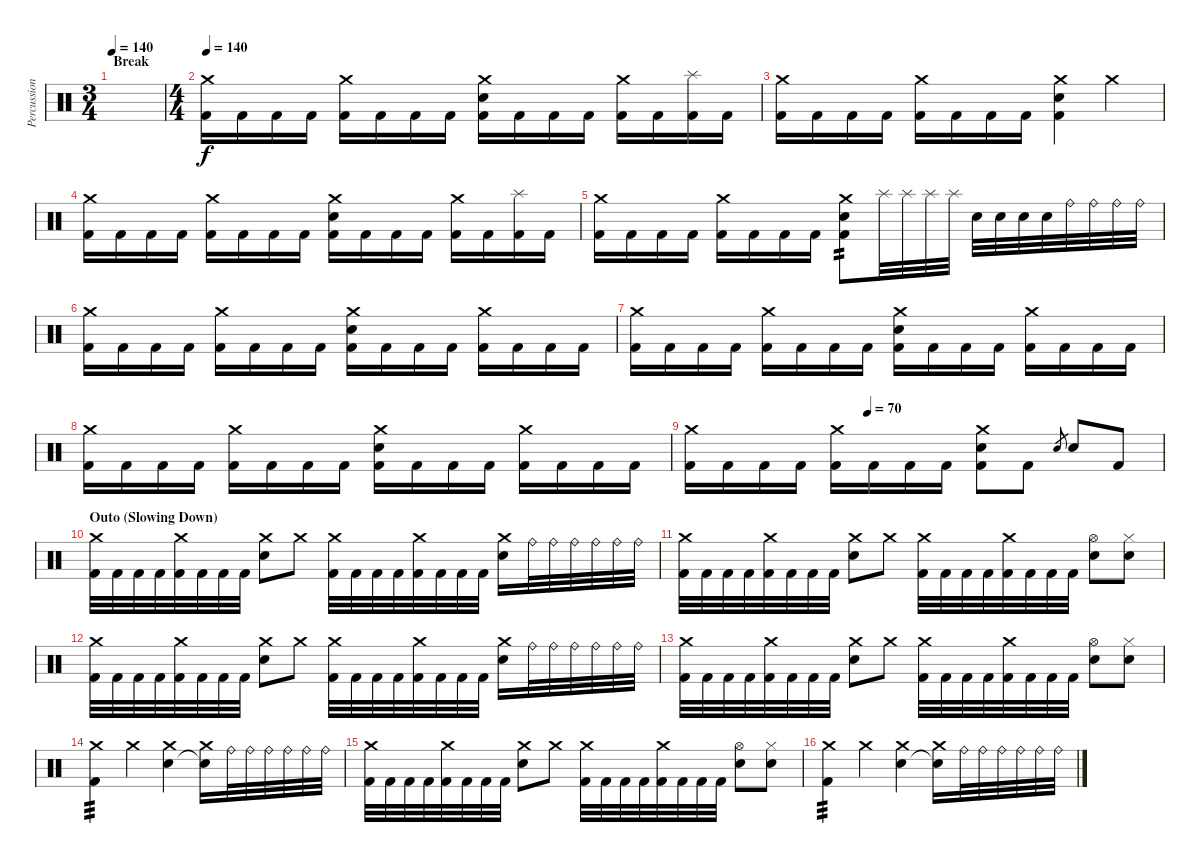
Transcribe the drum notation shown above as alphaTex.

\track ("Percussion" "Percussion") {instrument percussion}
\staff {score}
\articulation defaults
\ts (3 4)
\section ("" "Break")
\tempo 140
\clef neutral
\ks c
|
\ts (4 4)
\tempo 140
("Crash medium (hit)" "Kick (hit) 2").16 "Kick (hit) 2".16 "Kick (hit) 2".16 "Kick (hit) 2".16 ("Crash medium (hit)" "Kick (hit) 2").16 "Kick (hit) 2".16 "Kick (hit) 2".16 "Kick (hit) 2".16 ("Crash medium (hit)" "Electric Snare (hit)" "Kick (hit) 2").16 "Kick (hit) 2".16 "Kick (hit) 2".16 "Kick (hit) 2".16 ("Crash medium (hit)" "Kick (hit) 2").16 "Kick (hit) 2".16 ("Splash (hit)" "Kick (hit) 2").16 "Kick (hit) 2".16 |
("Crash medium (hit)" "Kick (hit) 2").16 "Kick (hit) 2".16 "Kick (hit) 2".16 "Kick (hit) 2".16 ("Crash medium (hit)" "Kick (hit) 2").16 "Kick (hit) 2".16 "Kick (hit) 2".16 "Kick (hit) 2".16 ("Crash medium (hit)" "Electric Snare (hit)" "Kick (hit) 2").4 "Crash medium (hit)".4 |
("Crash medium (hit)" "Kick (hit) 2").16 "Kick (hit) 2".16 "Kick (hit) 2".16 "Kick (hit) 2".16 ("Crash medium (hit)" "Kick (hit) 2").16 "Kick (hit) 2".16 "Kick (hit) 2".16 "Kick (hit) 2".16 ("Crash medium (hit)" "Electric Snare (hit)" "Kick (hit) 2").16 "Kick (hit) 2".16 "Kick (hit) 2".16 "Kick (hit) 2".16 ("Crash medium (hit)" "Kick (hit) 2").16 "Kick (hit) 2".16 ("Splash (hit)" "Kick (hit) 2").16 "Kick (hit) 2".16 |
("Crash medium (hit)" "Kick (hit) 2").16 "Kick (hit) 2".16 "Kick (hit) 2".16 "Kick (hit) 2".16 ("Crash medium (hit)" "Kick (hit) 2").16 "Kick (hit) 2".16 "Kick (hit) 2".16 "Kick (hit) 2".16 ("Crash medium (hit)" "Electric Snare (hit)" "Kick (hit) 2").8{tp 2} "Splash (hit)".32 "Splash (hit)".32 "Splash (hit)".32 "Splash (hit)".32 "Electric Snare (hit)".32 "Electric Snare (hit)".32 "Electric Snare (hit)".32 "Electric Snare (hit)".32 "Ride (bell)".32 "Ride (bell)".32 "Ride (bell)".32 "Ride (bell)".32 |
("Crash medium (hit)" "Kick (hit) 2").16 "Kick (hit) 2".16 "Kick (hit) 2".16 "Kick (hit) 2".16 ("Crash medium (hit)" "Kick (hit) 2").16 "Kick (hit) 2".16 "Kick (hit) 2".16 "Kick (hit) 2".16 ("Crash medium (hit)" "Electric Snare (hit)" "Kick (hit) 2").16 "Kick (hit) 2".16 "Kick (hit) 2".16 "Kick (hit) 2".16 ("Crash medium (hit)" "Kick (hit) 2").16 "Kick (hit) 2".16 "Kick (hit) 2".16 "Kick (hit) 2".16 |
("Crash medium (hit)" "Kick (hit) 2").16 "Kick (hit) 2".16 "Kick (hit) 2".16 "Kick (hit) 2".16 ("Crash medium (hit)" "Kick (hit) 2").16 "Kick (hit) 2".16 "Kick (hit) 2".16 "Kick (hit) 2".16 ("Crash medium (hit)" "Electric Snare (hit)" "Kick (hit) 2").16 "Kick (hit) 2".16 "Kick (hit) 2".16 "Kick (hit) 2".16 ("Crash medium (hit)" "Kick (hit) 2").16 "Kick (hit) 2".16 "Kick (hit) 2".16 "Kick (hit) 2".16 |
("Crash medium (hit)" "Kick (hit) 2").16 "Kick (hit) 2".16 "Kick (hit) 2".16 "Kick (hit) 2".16 ("Crash medium (hit)" "Kick (hit) 2").16 "Kick (hit) 2".16 "Kick (hit) 2".16 "Kick (hit) 2".16 ("Crash medium (hit)" "Electric Snare (hit)" "Kick (hit) 2").16 "Kick (hit) 2".16 "Kick (hit) 2".16 "Kick (hit) 2".16 ("Crash medium (hit)" "Kick (hit) 2").16 "Kick (hit) 2".16 "Kick (hit) 2".16 "Kick (hit) 2".16 |
\tempo (70 0.375)
("Crash medium (hit)" "Kick (hit) 2").16 "Kick (hit) 2".16 "Kick (hit) 2".16 "Kick (hit) 2".16 ("Crash medium (hit)" "Kick (hit) 2").16 "Kick (hit) 2".16 "Kick (hit) 2".16 "Kick (hit) 2".16 ("Crash medium (hit)" "Electric Snare (hit)" "Kick (hit) 2").8 "Kick (hit) 2".8 "Electric Snare (hit)".8{gr} "Electric Snare (hit)".8 "Kick (hit) 2".8 |
\section ("" "Outo (Slowing Down)")
("Crash medium (hit)" "Kick (hit) 2").32 "Kick (hit) 2".32 "Kick (hit) 2".32 "Kick (hit) 2".32 ("Crash medium (hit)" "Kick (hit) 2").32 "Kick (hit) 2".32 "Kick (hit) 2".32 "Kick (hit) 2".32 ("Crash medium (hit)" "Electric Snare (hit)").8 "Crash medium (hit)".8 ("Crash medium (hit)" "Kick (hit) 2").32 "Kick (hit) 2".32 "Kick (hit) 2".32 "Kick (hit) 2".32 ("Crash medium (hit)" "Kick (hit) 2").32 "Kick (hit) 2".32 "Kick (hit) 2".32 "Kick (hit) 2".32 ("Crash medium (hit)" "Electric Snare (hit)").16 "Ride (bell)".32 "Ride (bell)".32 "Ride (bell)".32 "Ride (bell)".32 "Ride (bell)".32 "Ride (bell)".32 |
("Crash medium (hit)" "Kick (hit) 2").32 "Kick (hit) 2".32 "Kick (hit) 2".32 "Kick (hit) 2".32 ("Crash medium (hit)" "Kick (hit) 2").32 "Kick (hit) 2".32 "Kick (hit) 2".32 "Kick (hit) 2".32 ("Crash medium (hit)" "Electric Snare (hit)").8 "Crash medium (hit)".8 ("Crash medium (hit)" "Kick (hit) 2").32 "Kick (hit) 2".32 "Kick (hit) 2".32 "Kick (hit) 2".32 ("Crash medium (hit)" "Kick (hit) 2").32 "Kick (hit) 2".32 "Kick (hit) 2".32 "Kick (hit) 2".32 ("Hi-Hat (open)" "Electric Snare (hit)").8 ("Hi-Hat (closed)" "Electric Snare (hit)").8 |
("Crash medium (hit)" "Kick (hit) 2").32 "Kick (hit) 2".32 "Kick (hit) 2".32 "Kick (hit) 2".32 ("Crash medium (hit)" "Kick (hit) 2").32 "Kick (hit) 2".32 "Kick (hit) 2".32 "Kick (hit) 2".32 ("Crash medium (hit)" "Electric Snare (hit)").8 "Crash medium (hit)".8 ("Crash medium (hit)" "Kick (hit) 2").32 "Kick (hit) 2".32 "Kick (hit) 2".32 "Kick (hit) 2".32 ("Crash medium (hit)" "Kick (hit) 2").32 "Kick (hit) 2".32 "Kick (hit) 2".32 "Kick (hit) 2".32 ("Crash medium (hit)" "Electric Snare (hit)").16 "Ride (bell)".32 "Ride (bell)".32 "Ride (bell)".32 "Ride (bell)".32 "Ride (bell)".32 "Ride (bell)".32 |
("Crash medium (hit)" "Kick (hit) 2").32 "Kick (hit) 2".32 "Kick (hit) 2".32 "Kick (hit) 2".32 ("Crash medium (hit)" "Kick (hit) 2").32 "Kick (hit) 2".32 "Kick (hit) 2".32 "Kick (hit) 2".32 ("Crash medium (hit)" "Electric Snare (hit)").8 "Crash medium (hit)".8 ("Crash medium (hit)" "Kick (hit) 2").32 "Kick (hit) 2".32 "Kick (hit) 2".32 "Kick (hit) 2".32 ("Crash medium (hit)" "Kick (hit) 2").32 "Kick (hit) 2".32 "Kick (hit) 2".32 "Kick (hit) 2".32 ("Hi-Hat (open)" "Electric Snare (hit)").8 ("Hi-Hat (closed)" "Electric Snare (hit)").8 |
("Crash medium (hit)" "Kick (hit) 2").4{tp 3} "Crash medium (hit)".4 ("Crash medium (hit)" "Electric Snare (hit)").4 ("Crash medium (hit)" "Snare (hit)"{t}).16 "Ride (bell)".32 "Ride (bell)".32 "Ride (bell)".32 "Ride (bell)".32 "Ride (bell)".32 "Ride (bell)".32 |
("Crash medium (hit)" "Kick (hit) 2").32 "Kick (hit) 2".32 "Kick (hit) 2".32 "Kick (hit) 2".32 ("Crash medium (hit)" "Kick (hit) 2").32 "Kick (hit) 2".32 "Kick (hit) 2".32 "Kick (hit) 2".32 ("Crash medium (hit)" "Electric Snare (hit)").8 "Crash medium (hit)".8 ("Crash medium (hit)" "Kick (hit) 2").32 "Kick (hit) 2".32 "Kick (hit) 2".32 "Kick (hit) 2".32 ("Crash medium (hit)" "Kick (hit) 2").32 "Kick (hit) 2".32 "Kick (hit) 2".32 "Kick (hit) 2".32 ("Hi-Hat (open)" "Electric Snare (hit)").8 ("Hi-Hat (closed)" "Electric Snare (hit)").8 |
("Crash medium (hit)" "Kick (hit) 2").4{tp 3} "Crash medium (hit)".4 ("Crash medium (hit)" "Electric Snare (hit)").4 ("Crash medium (hit)" "Snare (hit)"{t}).16 "Ride (bell)".32 "Ride (bell)".32 "Ride (bell)".32 "Ride (bell)".32 "Ride (bell)".32 "Ride (bell)".32
